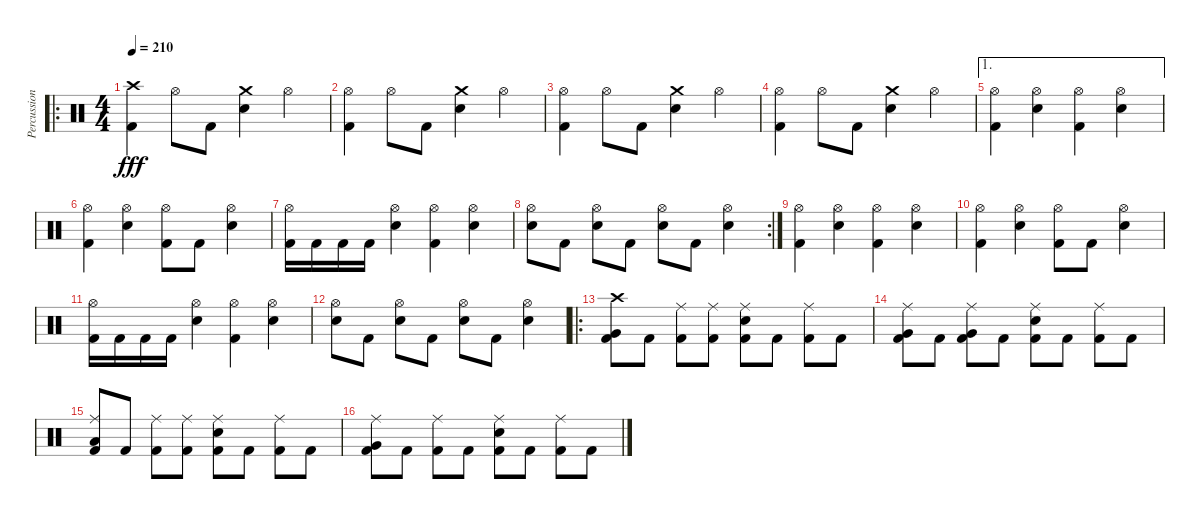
\track ("Percussion" "Percussion") {instrument percussion}
\staff
\articulation defaults
\ro
\ts (4 4)
\tempo 210
\clef neutral
\ks c
("Crash high (hit)" "Kick (hit) 2").4{dy fff} "Hi-Hat (open)".8 "Kick (hit) 2".8 ("Crash medium (hit)" "Electric Snare (hit)").4 "Hi-Hat (open)".4 |
("Hi-Hat (open)" "Kick (hit) 2").4 "Hi-Hat (open)".8 "Kick (hit) 2".8 ("Crash medium (hit)" "Electric Snare (hit)").4 "Hi-Hat (open)".4 |
("Hi-Hat (open)" "Kick (hit) 2").4 "Hi-Hat (open)".8 "Kick (hit) 2".8 ("Crash medium (hit)" "Electric Snare (hit)").4 "Hi-Hat (open)".4 |
("Hi-Hat (open)" "Kick (hit) 2").4 "Hi-Hat (open)".8 "Kick (hit) 2".8 ("Crash medium (hit)" "Electric Snare (hit)").4 "Hi-Hat (open)".4 |
\ae 1
("Hi-Hat (open)" "Kick (hit) 2").4 ("Hi-Hat (open)" "Electric Snare (hit)").4 ("Hi-Hat (open)" "Kick (hit) 2").4 ("Hi-Hat (open)" "Electric Snare (hit)").4 |
("Hi-Hat (open)" "Kick (hit) 2").4 ("Hi-Hat (open)" "Electric Snare (hit)").4 ("Hi-Hat (open)" "Kick (hit) 2").8 "Kick (hit) 2".8 ("Hi-Hat (open)" "Electric Snare (hit)").4 |
("Hi-Hat (open)" "Kick (hit) 2").16 "Kick (hit) 2".16 "Kick (hit) 2".16 "Kick (hit) 2".16 ("Hi-Hat (open)" "Electric Snare (hit)").4 ("Hi-Hat (open)" "Kick (hit) 2").4 ("Hi-Hat (open)" "Electric Snare (hit)").4 |
\rc 2
("Hi-Hat (open)" "Electric Snare (hit)").8 "Kick (hit) 2".8 ("Hi-Hat (open)" "Electric Snare (hit)").8 "Kick (hit) 2".8 ("Hi-Hat (open)" "Electric Snare (hit)").8 "Kick (hit) 2".8 ("Hi-Hat (open)" "Electric Snare (hit)").4 |
("Hi-Hat (open)" "Kick (hit) 2").4 ("Hi-Hat (open)" "Electric Snare (hit)").4 ("Hi-Hat (open)" "Kick (hit) 2").4 ("Hi-Hat (open)" "Electric Snare (hit)").4 |
("Hi-Hat (open)" "Kick (hit) 2").4 ("Hi-Hat (open)" "Electric Snare (hit)").4 ("Hi-Hat (open)" "Kick (hit) 2").8 "Kick (hit) 2".8 ("Hi-Hat (open)" "Electric Snare (hit)").4 |
("Hi-Hat (open)" "Kick (hit) 2").16 "Kick (hit) 2".16 "Kick (hit) 2".16 "Kick (hit) 2".16 ("Hi-Hat (open)" "Electric Snare (hit)").4 ("Hi-Hat (open)" "Kick (hit) 2").4 ("Hi-Hat (open)" "Electric Snare (hit)").4 |
("Hi-Hat (open)" "Electric Snare (hit)").8 "Kick (hit) 2".8 ("Hi-Hat (open)" "Electric Snare (hit)").8 "Kick (hit) 2".8 ("Hi-Hat (open)" "Electric Snare (hit)").8 "Kick (hit) 2".8 ("Hi-Hat (open)" "Electric Snare (hit)").4 |
\ro
("Crash high (hit)" "Very Low Tom (hit)" "Kick (hit) 2").8 "Kick (hit) 2".8 ("Ride (middle)" "Kick (hit) 2").8 ("Ride (middle)" "Kick (hit) 2").8 ("Ride (middle)" "Electric Snare (hit)" "Kick (hit) 2").8 "Kick (hit) 2".8 ("Ride (middle)" "Kick (hit) 2").8 "Kick (hit) 2".8 |
("Ride (middle)" "Very Low Tom (hit)" "Kick (hit) 2").8 "Kick (hit) 2".8 ("Ride (middle)" "Very Low Tom (hit)" "Kick (hit) 2").8 "Kick (hit) 2".8 ("Ride (middle)" "Electric Snare (hit)" "Kick (hit) 2").8 "Kick (hit) 2".8 ("Ride (middle)" "Kick (hit) 2").8 "Kick (hit) 2".8 |
("Ride (middle)" "Low Tom (hit)" "Kick (hit) 2").8 "Kick (hit) 2".8 ("Ride (middle)" "Kick (hit) 2").8 ("Ride (middle)" "Kick (hit) 2").8 ("Ride (middle)" "Electric Snare (hit)" "Kick (hit) 2").8 "Kick (hit) 2".8 ("Ride (middle)" "Kick (hit) 2").8 "Kick (hit) 2".8 |
("Ride (middle)" "Very Low Tom (hit)" "Kick (hit) 2").8 "Kick (hit) 2".8 ("Ride (middle)" "Kick (hit) 2").8 "Kick (hit) 2".8 ("Ride (middle)" "Electric Snare (hit)" "Kick (hit) 2").8 "Kick (hit) 2".8 ("Ride (middle)" "Kick (hit) 2").8 "Kick (hit) 2".8
